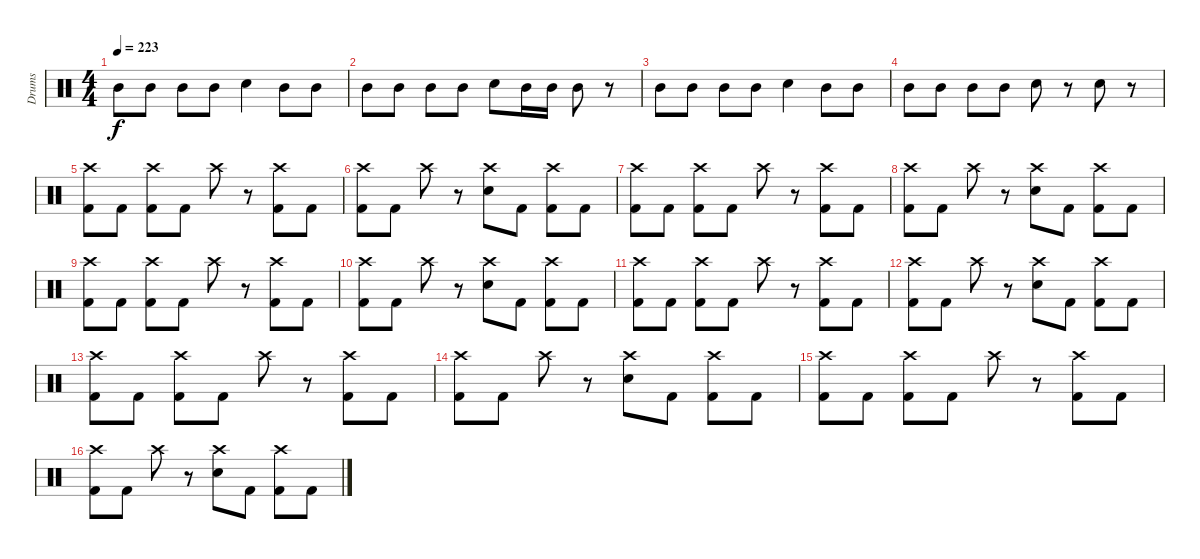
\track ("Drums" "Drums") {instrument percussion bank 177}
\staff {score}
\articulation defaults
\ts (4 4)
\tempo 223
\clef neutral
\ks c "Mid Tom (hit)".8{dy f} "Mid Tom (hit)".8 "Mid Tom (hit)".8 "Mid Tom (hit)".8 "Electric Snare (hit)".4 "Mid Tom (hit)".8 "Mid Tom (hit)".8
|
"Mid Tom (hit)".8 "Mid Tom (hit)".8 "Mid Tom (hit)".8 "Mid Tom (hit)".8 "Electric Snare (hit)".8 "Mid Tom (hit)".16 "Mid Tom (hit)".16 "Mid Tom (hit)".8 r.8 |
"Mid Tom (hit)".8 "Mid Tom (hit)".8 "Mid Tom (hit)".8 "Mid Tom (hit)".8 "Electric Snare (hit)".4 "Mid Tom (hit)".8 "Mid Tom (hit)".8 |
"Mid Tom (hit)".8 "Mid Tom (hit)".8 "Mid Tom (hit)".8 "Mid Tom (hit)".8 "Electric Snare (hit)".8 r.8 "Electric Snare (hit)".8 r.8 |
("Crash high (hit)" "Kick (hit) 2").8 "Kick (hit) 2".8 ("Crash high (hit)" "Kick (hit) 2").8 "Kick (hit) 2".8 "Crash high (hit)".8 r.8 ("Crash high (hit)" "Kick (hit) 2").8 "Kick (hit) 2".8 |
("Crash high (hit)" "Kick (hit) 2").8 "Kick (hit) 2".8 "Crash high (hit)".8 r.8 ("Crash high (hit)" "Electric Snare (hit)").8 "Kick (hit) 2".8 ("Crash high (hit)" "Kick (hit) 2").8 "Kick (hit) 2".8 |
("Crash high (hit)" "Kick (hit) 2").8 "Kick (hit) 2".8 ("Crash high (hit)" "Kick (hit) 2").8 "Kick (hit) 2".8 "Crash high (hit)".8 r.8 ("Crash high (hit)" "Kick (hit) 2").8 "Kick (hit) 2".8 |
("Crash high (hit)" "Kick (hit) 2").8 "Kick (hit) 2".8 "Crash high (hit)".8 r.8 ("Crash high (hit)" "Electric Snare (hit)").8 "Kick (hit) 2".8 ("Crash high (hit)" "Kick (hit) 2").8 "Kick (hit) 2".8 |
("Crash high (hit)" "Kick (hit) 2").8 "Kick (hit) 2".8 ("Crash high (hit)" "Kick (hit) 2").8 "Kick (hit) 2".8 "Crash high (hit)".8 r.8 ("Crash high (hit)" "Kick (hit) 2").8 "Kick (hit) 2".8 |
("Crash high (hit)" "Kick (hit) 2").8 "Kick (hit) 2".8 "Crash high (hit)".8 r.8 ("Crash high (hit)" "Electric Snare (hit)").8 "Kick (hit) 2".8 ("Crash high (hit)" "Kick (hit) 2").8 "Kick (hit) 2".8 |
("Crash high (hit)" "Kick (hit) 2").8 "Kick (hit) 2".8 ("Crash high (hit)" "Kick (hit) 2").8 "Kick (hit) 2".8 "Crash high (hit)".8 r.8 ("Crash high (hit)" "Kick (hit) 2").8 "Kick (hit) 2".8 |
("Crash high (hit)" "Kick (hit) 2").8 "Kick (hit) 2".8 "Crash high (hit)".8 r.8 ("Crash high (hit)" "Electric Snare (hit)").8 "Kick (hit) 2".8 ("Crash high (hit)" "Kick (hit) 2").8 "Kick (hit) 2".8 |
("Crash high (hit)" "Kick (hit) 2").8 "Kick (hit) 2".8 ("Crash high (hit)" "Kick (hit) 2").8 "Kick (hit) 2".8 "Crash high (hit)".8 r.8 ("Crash high (hit)" "Kick (hit) 2").8 "Kick (hit) 2".8 |
("Crash high (hit)" "Kick (hit) 2").8 "Kick (hit) 2".8 "Crash high (hit)".8 r.8 ("Crash high (hit)" "Electric Snare (hit)").8 "Kick (hit) 2".8 ("Crash high (hit)" "Kick (hit) 2").8 "Kick (hit) 2".8 |
("Crash high (hit)" "Kick (hit) 2").8 "Kick (hit) 2".8 ("Crash high (hit)" "Kick (hit) 2").8 "Kick (hit) 2".8 "Crash high (hit)".8 r.8 ("Crash high (hit)" "Kick (hit) 2").8 "Kick (hit) 2".8 |
("Crash high (hit)" "Kick (hit) 2").8 "Kick (hit) 2".8 "Crash high (hit)".8 r.8 ("Crash high (hit)" "Electric Snare (hit)").8 "Kick (hit) 2".8 ("Crash high (hit)" "Kick (hit) 2").8 "Kick (hit) 2".8
